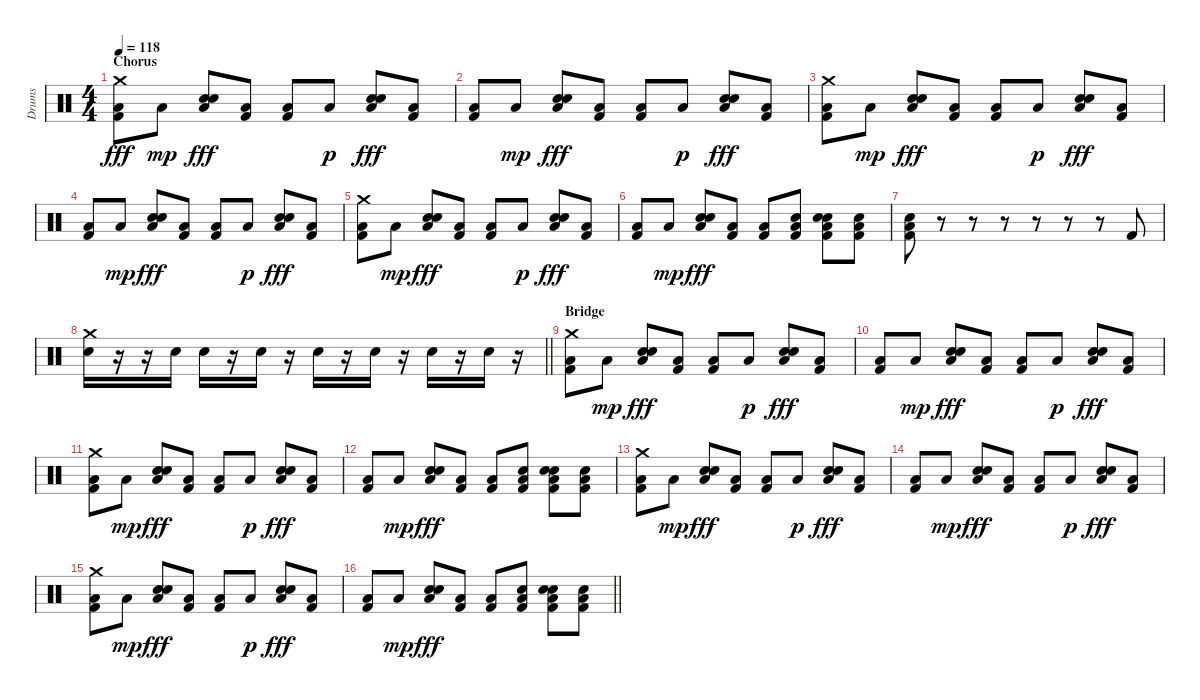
\track ("Drums" "Drums") {instrument percussion}
\staff {score}
\articulation defaults
\ts (4 4)
\section ("" "Chorus")
\tempo 118
\clef neutral
\ks c
("Crash medium (hit)" "Low Floor Tom (hit)" "Kick (hit) 2").8{dy fff} "Low Floor Tom (hit)".8{dy mp} ("Hand Clap (hit)" "Snare (hit) 2" "Low Floor Tom (hit)").8{dy fff} ("Low Floor Tom (hit)" "Kick (hit) 2").8 ("Low Floor Tom (hit)" "Kick (hit) 2").8 "Low Floor Tom (hit)".8{dy p} ("Hand Clap (hit)" "Snare (hit) 2" "Low Floor Tom (hit)").8{dy fff} ("Low Floor Tom (hit)" "Kick (hit) 2").8 |
("Low Floor Tom (hit)" "Kick (hit) 2").8 "Low Floor Tom (hit)".8{dy mp} ("Hand Clap (hit)" "Snare (hit) 2" "Low Floor Tom (hit)").8{dy fff} ("Low Floor Tom (hit)" "Kick (hit) 2").8 ("Low Floor Tom (hit)" "Kick (hit) 2").8 "Low Floor Tom (hit)".8{dy p} ("Hand Clap (hit)" "Snare (hit) 2" "Low Floor Tom (hit)").8{dy fff} ("Low Floor Tom (hit)" "Kick (hit) 2").8 |
("Crash medium (hit)" "Low Floor Tom (hit)" "Kick (hit) 2").8 "Low Floor Tom (hit)".8{dy mp} ("Hand Clap (hit)" "Snare (hit) 2" "Low Floor Tom (hit)").8{dy fff} ("Low Floor Tom (hit)" "Kick (hit) 2").8 ("Low Floor Tom (hit)" "Kick (hit) 2").8 "Low Floor Tom (hit)".8{dy p} ("Hand Clap (hit)" "Snare (hit) 2" "Low Floor Tom (hit)").8{dy fff} ("Low Floor Tom (hit)" "Kick (hit) 2").8 |
("Low Floor Tom (hit)" "Kick (hit) 2").8 "Low Floor Tom (hit)".8{dy mp} ("Hand Clap (hit)" "Snare (hit) 2" "Low Floor Tom (hit)").8{dy fff} ("Low Floor Tom (hit)" "Kick (hit) 2").8 ("Low Floor Tom (hit)" "Kick (hit) 2").8 "Low Floor Tom (hit)".8{dy p} ("Hand Clap (hit)" "Snare (hit) 2" "Low Floor Tom (hit)").8{dy fff} ("Low Floor Tom (hit)" "Kick (hit) 2").8 |
("Crash medium (hit)" "Low Floor Tom (hit)" "Kick (hit) 2").8 "Low Floor Tom (hit)".8{dy mp} ("Hand Clap (hit)" "Snare (hit) 2" "Low Floor Tom (hit)").8{dy fff} ("Low Floor Tom (hit)" "Kick (hit) 2").8 ("Low Floor Tom (hit)" "Kick (hit) 2").8 "Low Floor Tom (hit)".8{dy p} ("Hand Clap (hit)" "Snare (hit) 2" "Low Floor Tom (hit)").8{dy fff} ("Low Floor Tom (hit)" "Kick (hit) 2").8 |
("Low Floor Tom (hit)" "Kick (hit) 2").8 "Low Floor Tom (hit)".8{dy mp} ("Hand Clap (hit)" "Snare (hit) 2" "Low Floor Tom (hit)").8{dy fff} ("Low Floor Tom (hit)" "Kick (hit) 2").8 ("Low Floor Tom (hit)" "Kick (hit) 2").8 ("Snare (hit) 2" "Low Floor Tom (hit)" "Kick (hit) 2").8 ("Hand Clap (hit)" "Snare (hit) 2" "Low Floor Tom (hit)" "Kick (hit) 2").8 ("Snare (hit) 2" "Low Floor Tom (hit)" "Kick (hit) 2").8 |
("Snare (hit) 2" "Low Floor Tom (hit)" "Kick (hit) 2").8 r.8 r.8 r.8 r.8 r.8 r.8 "Kick (hit) 2".8 |
\barLineRight lightlight
("Crash medium (hit)" "Snare (hit) 2").16 r.16 r.16 "Snare (hit) 2".16 "Snare (hit) 2".16 r.16 "Snare (hit) 2".16 r.16 "Snare (hit) 2".16 r.16 "Snare (hit) 2".16 r.16 "Snare (hit) 2".16 r.16 "Snare (hit) 2".16 r.16 |
\section ("" "Bridge")
("Crash medium (hit)" "Low Floor Tom (hit)" "Kick (hit) 2").8 "Low Floor Tom (hit)".8{dy mp} ("Hand Clap (hit)" "Snare (hit) 2" "Low Floor Tom (hit)").8{dy fff} ("Low Floor Tom (hit)" "Kick (hit) 2").8 ("Low Floor Tom (hit)" "Kick (hit) 2").8 "Low Floor Tom (hit)".8{dy p} ("Hand Clap (hit)" "Snare (hit) 2" "Low Floor Tom (hit)").8{dy fff} ("Low Floor Tom (hit)" "Kick (hit) 2").8 |
("Low Floor Tom (hit)" "Kick (hit) 2").8 "Low Floor Tom (hit)".8{dy mp} ("Hand Clap (hit)" "Snare (hit) 2" "Low Floor Tom (hit)").8{dy fff} ("Low Floor Tom (hit)" "Kick (hit) 2").8 ("Low Floor Tom (hit)" "Kick (hit) 2").8 "Low Floor Tom (hit)".8{dy p} ("Hand Clap (hit)" "Snare (hit) 2" "Low Floor Tom (hit)").8{dy fff} ("Low Floor Tom (hit)" "Kick (hit) 2").8 |
("Crash medium (hit)" "Low Floor Tom (hit)" "Kick (hit) 2").8 "Low Floor Tom (hit)".8{dy mp} ("Hand Clap (hit)" "Snare (hit) 2" "Low Floor Tom (hit)").8{dy fff} ("Low Floor Tom (hit)" "Kick (hit) 2").8 ("Low Floor Tom (hit)" "Kick (hit) 2").8 "Low Floor Tom (hit)".8{dy p} ("Hand Clap (hit)" "Snare (hit) 2" "Low Floor Tom (hit)").8{dy fff} ("Low Floor Tom (hit)" "Kick (hit) 2").8 |
("Low Floor Tom (hit)" "Kick (hit) 2").8 "Low Floor Tom (hit)".8{dy mp} ("Hand Clap (hit)" "Snare (hit) 2" "Low Floor Tom (hit)").8{dy fff} ("Low Floor Tom (hit)" "Kick (hit) 2").8 ("Low Floor Tom (hit)" "Kick (hit) 2").8 ("Snare (hit) 2" "Low Floor Tom (hit)" "Kick (hit) 2").8 ("Hand Clap (hit)" "Snare (hit) 2" "Low Floor Tom (hit)" "Kick (hit) 2").8 ("Snare (hit) 2" "Low Floor Tom (hit)" "Kick (hit) 2").8 |
("Crash medium (hit)" "Low Floor Tom (hit)" "Kick (hit) 2").8 "Low Floor Tom (hit)".8{dy mp} ("Hand Clap (hit)" "Snare (hit) 2" "Low Floor Tom (hit)").8{dy fff} ("Low Floor Tom (hit)" "Kick (hit) 2").8 ("Low Floor Tom (hit)" "Kick (hit) 2").8 "Low Floor Tom (hit)".8{dy p} ("Hand Clap (hit)" "Snare (hit) 2" "Low Floor Tom (hit)").8{dy fff} ("Low Floor Tom (hit)" "Kick (hit) 2").8 |
("Low Floor Tom (hit)" "Kick (hit) 2").8 "Low Floor Tom (hit)".8{dy mp} ("Hand Clap (hit)" "Snare (hit) 2" "Low Floor Tom (hit)").8{dy fff} ("Low Floor Tom (hit)" "Kick (hit) 2").8 ("Low Floor Tom (hit)" "Kick (hit) 2").8 "Low Floor Tom (hit)".8{dy p} ("Hand Clap (hit)" "Snare (hit) 2" "Low Floor Tom (hit)").8{dy fff} ("Low Floor Tom (hit)" "Kick (hit) 2").8 |
("Crash medium (hit)" "Low Floor Tom (hit)" "Kick (hit) 2").8 "Low Floor Tom (hit)".8{dy mp} ("Hand Clap (hit)" "Snare (hit) 2" "Low Floor Tom (hit)").8{dy fff} ("Low Floor Tom (hit)" "Kick (hit) 2").8 ("Low Floor Tom (hit)" "Kick (hit) 2").8 "Low Floor Tom (hit)".8{dy p} ("Hand Clap (hit)" "Snare (hit) 2" "Low Floor Tom (hit)").8{dy fff} ("Low Floor Tom (hit)" "Kick (hit) 2").8 |
\barLineRight lightlight
("Low Floor Tom (hit)" "Kick (hit) 2").8 "Low Floor Tom (hit)".8{dy mp} ("Hand Clap (hit)" "Snare (hit) 2" "Low Floor Tom (hit)").8{dy fff} ("Low Floor Tom (hit)" "Kick (hit) 2").8 ("Low Floor Tom (hit)" "Kick (hit) 2").8 ("Snare (hit) 2" "Low Floor Tom (hit)" "Kick (hit) 2").8 ("Hand Clap (hit)" "Snare (hit) 2" "Low Floor Tom (hit)" "Kick (hit) 2").8 ("Snare (hit) 2" "Low Floor Tom (hit)" "Kick (hit) 2").8
